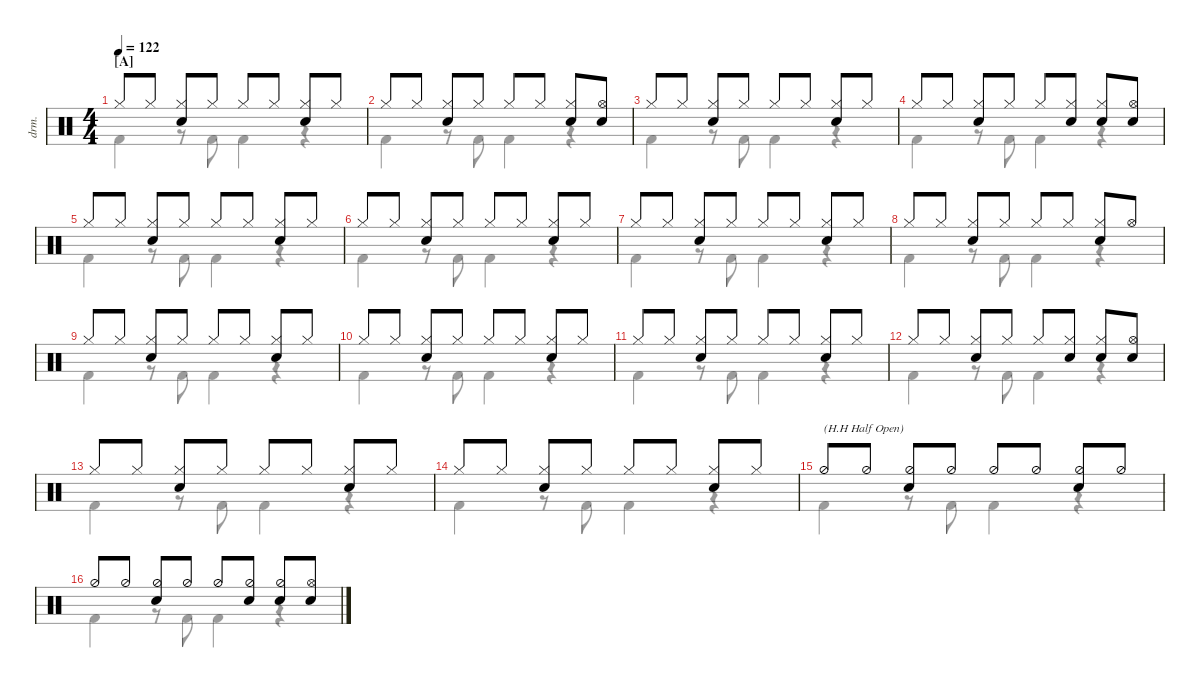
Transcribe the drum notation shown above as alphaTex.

\defaultSystemsLayout 4
\hideDynamics
\bracketExtendMode nobrackets
\track ("Drumkit" "drm.") {defaultSystemsLayout 4 instrument percussion}
\staff {score}
\articulation defaults
\voice
\ts (4 4)
\section ("A" "")
\tempo 122
\clef neutral
\ks c "Hi-Hat (closed)".8{dy mf beam Up} "Hi-Hat (closed)".8{beam Up}
("Hi-Hat (closed)" "Snare (hit) 2").8{beam Up} "Hi-Hat (closed)".8{beam Up} "Hi-Hat (closed)".8{beam Up} "Hi-Hat (closed)".8{beam Up} ("Hi-Hat (closed)" "Snare (hit) 2").8{beam Up} "Hi-Hat (closed)".8{beam Up} |
"Hi-Hat (closed)".8{beam Up} "Hi-Hat (closed)".8{beam Up} ("Hi-Hat (closed)" "Snare (hit) 2").8{beam Up} "Hi-Hat (closed)".8{beam Up} "Hi-Hat (closed)".8{beam Up} "Hi-Hat (closed)".8{beam Up} ("Hi-Hat (closed)" "Snare (hit) 2").8{beam Up} ("Hi-Hat (open)" "Snare (hit) 2").8{beam Up} |
"Hi-Hat (closed)".8{beam Up} "Hi-Hat (closed)".8{beam Up} ("Hi-Hat (closed)" "Snare (hit) 2").8{beam Up} "Hi-Hat (closed)".8{beam Up} "Hi-Hat (closed)".8{beam Up} "Hi-Hat (closed)".8{beam Up} ("Hi-Hat (closed)" "Snare (hit) 2").8{beam Up} "Hi-Hat (closed)".8{beam Up} |
"Hi-Hat (closed)".8{beam Up} "Hi-Hat (closed)".8{beam Up} ("Hi-Hat (closed)" "Snare (hit) 2").8{beam Up} "Hi-Hat (closed)".8{beam Up} "Hi-Hat (closed)".8{beam Up} ("Hi-Hat (closed)" "Snare (hit) 2").8{beam Up} ("Hi-Hat (closed)" "Snare (hit) 2").8{beam Up} ("Hi-Hat (open)" "Snare (hit) 2").8{beam Up} |
\section ("" "")
"Hi-Hat (closed)".8{beam Up} "Hi-Hat (closed)".8{beam Up} ("Hi-Hat (closed)" "Snare (hit) 2").8{beam Up} "Hi-Hat (closed)".8{beam Up} "Hi-Hat (closed)".8{beam Up} "Hi-Hat (closed)".8{beam Up} ("Hi-Hat (closed)" "Snare (hit) 2").8{beam Up} "Hi-Hat (closed)".8{beam Up} |
"Hi-Hat (closed)".8{beam Up} "Hi-Hat (closed)".8{beam Up} ("Hi-Hat (closed)" "Snare (hit) 2").8{beam Up} "Hi-Hat (closed)".8{beam Up} "Hi-Hat (closed)".8{beam Up} "Hi-Hat (closed)".8{beam Up} ("Hi-Hat (closed)" "Snare (hit) 2").8{beam Up} "Hi-Hat (closed)".8{beam Up} |
"Hi-Hat (closed)".8{beam Up} "Hi-Hat (closed)".8{beam Up} ("Hi-Hat (closed)" "Snare (hit) 2").8{beam Up} "Hi-Hat (closed)".8{beam Up} "Hi-Hat (closed)".8{beam Up} "Hi-Hat (closed)".8{beam Up} ("Hi-Hat (closed)" "Snare (hit) 2").8{beam Up} "Hi-Hat (closed)".8{beam Up} |
"Hi-Hat (closed)".8{beam Up} "Hi-Hat (closed)".8{beam Up} ("Hi-Hat (closed)" "Snare (hit) 2").8{beam Up} "Hi-Hat (closed)".8{beam Up} "Hi-Hat (closed)".8{beam Up} "Hi-Hat (closed)".8{beam Up} ("Hi-Hat (closed)" "Snare (hit) 2").8{beam Up} "Hi-Hat (open)".8{beam Up} |
"Hi-Hat (closed)".8{beam Up} "Hi-Hat (closed)".8{beam Up} ("Hi-Hat (closed)" "Snare (hit) 2").8{beam Up} "Hi-Hat (closed)".8{beam Up} "Hi-Hat (closed)".8{beam Up} "Hi-Hat (closed)".8{beam Up} ("Hi-Hat (closed)" "Snare (hit) 2").8{beam Up} "Hi-Hat (closed)".8{beam Up} |
"Hi-Hat (closed)".8{beam Up} "Hi-Hat (closed)".8{beam Up} ("Hi-Hat (closed)" "Snare (hit) 2").8{beam Up} "Hi-Hat (closed)".8{beam Up} "Hi-Hat (closed)".8{beam Up} "Hi-Hat (closed)".8{beam Up} ("Hi-Hat (closed)" "Snare (hit) 2").8{beam Up} "Hi-Hat (closed)".8{beam Up} |
"Hi-Hat (closed)".8{beam Up} "Hi-Hat (closed)".8{beam Up} ("Hi-Hat (closed)" "Snare (hit) 2").8{beam Up} "Hi-Hat (closed)".8{beam Up} "Hi-Hat (closed)".8{beam Up} "Hi-Hat (closed)".8{beam Up} ("Hi-Hat (closed)" "Snare (hit) 2").8{beam Up} "Hi-Hat (closed)".8{beam Up} |
"Hi-Hat (closed)".8{beam Up} "Hi-Hat (closed)".8{beam Up} ("Hi-Hat (closed)" "Snare (hit) 2").8{beam Up} "Hi-Hat (closed)".8{beam Up} "Hi-Hat (closed)".8{beam Up} ("Hi-Hat (closed)" "Snare (hit) 2").8{beam Up} ("Hi-Hat (closed)" "Snare (hit) 2").8{beam Up} ("Hi-Hat (open)" "Snare (hit) 2").8{beam Up} |
"Hi-Hat (closed)".8{beam Up} "Hi-Hat (closed)".8{beam Up} ("Hi-Hat (closed)" "Snare (hit) 2").8{beam Up} "Hi-Hat (closed)".8{beam Up} "Hi-Hat (closed)".8{beam Up} "Hi-Hat (closed)".8{beam Up} ("Hi-Hat (closed)" "Snare (hit) 2").8{beam Up} "Hi-Hat (closed)".8{beam Up} |
"Hi-Hat (closed)".8{beam Up} "Hi-Hat (closed)".8{beam Up} ("Hi-Hat (closed)" "Snare (hit) 2").8{beam Up} "Hi-Hat (closed)".8{beam Up} "Hi-Hat (closed)".8{beam Up} "Hi-Hat (closed)".8{beam Up} ("Hi-Hat (closed)" "Snare (hit) 2").8{beam Up} "Hi-Hat (closed)".8{beam Up} |
"Hi-Hat (half)".8{txt "(H.H Half Open)" beam Up} "Hi-Hat (half)".8{beam Up} ("Hi-Hat (half)" "Snare (hit) 2").8{beam Up} "Hi-Hat (half)".8{beam Up} "Hi-Hat (half)".8{beam Up} "Hi-Hat (half)".8{beam Up} ("Hi-Hat (half)" "Snare (hit) 2").8{beam Up} "Hi-Hat (half)".8{beam Up} |
"Hi-Hat (half)".8{beam Up} "Hi-Hat (half)".8{beam Up} ("Hi-Hat (half)" "Snare (hit) 2").8{beam Up} "Hi-Hat (half)".8{beam Up} "Hi-Hat (half)".8{beam Up} ("Hi-Hat (half)" "Snare (hit) 2").8{beam Up} ("Hi-Hat (half)" "Snare (hit) 2").8{beam Up} ("Hi-Hat (open)" "Snare (hit) 2").8{beam Up}
\voice
\clef neutral
\ottava regular
\simile none
\ks c
|
|
|
|
|
|
|
|
|
|
|
|
|
|
|
\voice
\clef neutral
\ottava regular
\simile none
\ks c "Kick (hit) 2".4{dy mf beam Down}
r.8{beam Down} "Kick (hit) 2".8{beam Down} "Kick (hit) 2".4{beam Down} r.4{beam Down} |
"Kick (hit) 2".4{beam Down} r.8{beam Down} "Kick (hit) 2".8{beam Down} "Kick (hit) 2".4{beam Down} r.4{beam Down} |
"Kick (hit) 2".4{beam Down} r.8{beam Down} "Kick (hit) 2".8{beam Down} "Kick (hit) 2".4{beam Down} r.4{beam Down} |
"Kick (hit) 2".4{beam Down} r.8{beam Down} "Kick (hit) 2".8{beam Down} "Kick (hit) 2".4{beam Down} r.4{beam Down} |
"Kick (hit) 2".4{beam Down} r.8{beam Down} "Kick (hit) 2".8{beam Down} "Kick (hit) 2".4{beam Down} r.4{beam Down} |
"Kick (hit) 2".4{beam Down} r.8{beam Down} "Kick (hit) 2".8{beam Down} "Kick (hit) 2".4{beam Down} r.4{beam Down} |
"Kick (hit) 2".4{beam Down} r.8{beam Down} "Kick (hit) 2".8{beam Down} "Kick (hit) 2".4{beam Down} r.4{beam Down} |
"Kick (hit) 2".4{beam Down} r.8{beam Down} "Kick (hit) 2".8{beam Down} "Kick (hit) 2".4{beam Down} r.4{beam Down} |
"Kick (hit) 2".4{beam Down} r.8{beam Down} "Kick (hit) 2".8{beam Down} "Kick (hit) 2".4{beam Down} r.4{beam Down} |
"Kick (hit) 2".4{beam Down} r.8{beam Down} "Kick (hit) 2".8{beam Down} "Kick (hit) 2".4{beam Down} r.4{beam Down} |
"Kick (hit) 2".4{beam Down} r.8{beam Down} "Kick (hit) 2".8{beam Down} "Kick (hit) 2".4{beam Down} r.4{beam Down} |
"Kick (hit) 2".4{beam Down} r.8{beam Down} "Kick (hit) 2".8{beam Down} "Kick (hit) 2".4{beam Down} r.4{beam Down} |
"Kick (hit) 2".4{beam Down} r.8{beam Down} "Kick (hit) 2".8{beam Down} "Kick (hit) 2".4{beam Down} r.4{beam Down} |
"Kick (hit) 2".4{beam Down} r.8{beam Down} "Kick (hit) 2".8{beam Down} "Kick (hit) 2".4{beam Down} r.4{beam Down} |
"Kick (hit) 2".4{beam Down} r.8{beam Down} "Kick (hit) 2".8{beam Down} "Kick (hit) 2".4{beam Down} r.4{beam Down} |
"Kick (hit) 2".4{beam Down} r.8{beam Down} "Kick (hit) 2".8{beam Down} "Kick (hit) 2".4{beam Down} r.4{beam Down}
